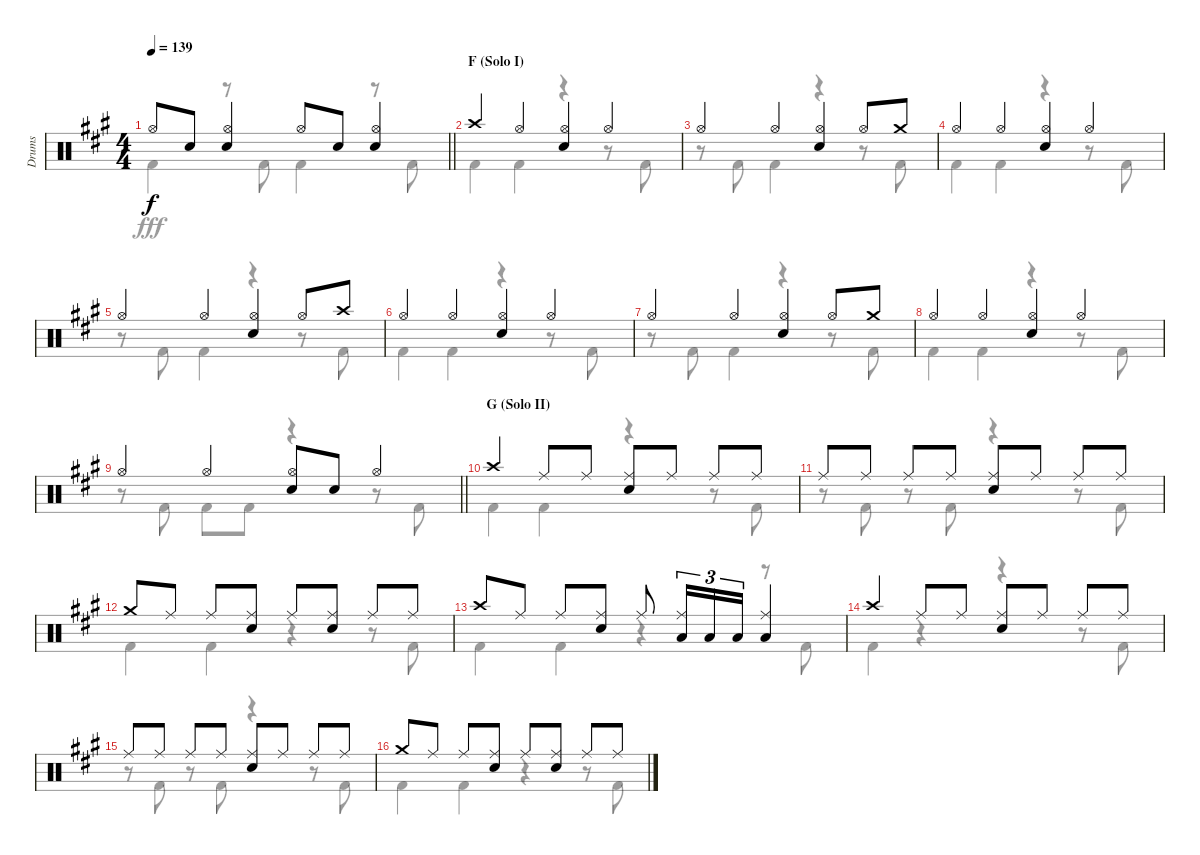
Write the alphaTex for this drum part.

\track ("Drums" "Drums") {instrument percussion}
\staff {score}
\articulation defaults
\voice
\ts (4 4)
\tempo 139
\clef neutral
\barLineRight lightlight
\ks a "Hi-Hat (open)".8{dy f} "Snare (hit) 2".8
("Hi-Hat (open)" "Snare (hit) 2").4 "Hi-Hat (open)".8 "Snare (hit) 2".8 ("Hi-Hat (open)" "Snare (hit) 2").4 |
\section ("" "F (Solo I)")
"Crash high (hit)".4 "Hi-Hat (open)".4 ("Hi-Hat (open)" "Snare (hit) 2").4 "Hi-Hat (open)".4 |
"Hi-Hat (open)".4 "Hi-Hat (open)".4 ("Hi-Hat (open)" "Snare (hit) 2").4 "Hi-Hat (open)".8 "Crash medium (hit)".8 |
"Hi-Hat (open)".4 "Hi-Hat (open)".4 ("Hi-Hat (open)" "Snare (hit) 2").4 "Hi-Hat (open)".4 |
"Hi-Hat (open)".4 "Hi-Hat (open)".4 ("Hi-Hat (open)" "Snare (hit) 2").4 "Hi-Hat (open)".8 "Crash high (hit)".8 |
"Hi-Hat (open)".4 "Hi-Hat (open)".4 ("Hi-Hat (open)" "Snare (hit) 2").4 "Hi-Hat (open)".4 |
"Hi-Hat (open)".4 "Hi-Hat (open)".4 ("Hi-Hat (open)" "Snare (hit) 2").4 "Hi-Hat (open)".8 "Crash medium (hit)".8 |
"Hi-Hat (open)".4 "Hi-Hat (open)".4 ("Hi-Hat (open)" "Snare (hit) 2").4 "Hi-Hat (open)".4 |
\barLineRight lightlight "Hi-Hat (open)".4 "Hi-Hat (open)".4
("Hi-Hat (open)" "Snare (hit) 2").8 "Snare (hit) 2".8 "Hi-Hat (open)".4 |
\section ("" "G (Solo II)")
"Crash high (hit)".4 "Ride (middle)".8 "Ride (middle)".8 ("Ride (middle)" "Snare (hit) 2").8 "Ride (middle)".8 "Ride (middle)".8 "Ride (middle)".8 |
"Ride (middle)".8 "Ride (middle)".8 "Ride (middle)".8 "Ride (middle)".8 ("Ride (middle)" "Snare (hit) 2").8 "Ride (middle)".8 "Ride (middle)".8 "Ride (middle)".8 |
"Crash medium (hit)".8 "Ride (middle)".8 "Ride (middle)".8 ("Ride (middle)" "Snare (hit) 2").8 "Ride (middle)".8 ("Ride (middle)" "Snare (hit) 2").8 "Ride (middle)".8 "Ride (middle)".8 |
"Crash high (hit)".8 "Ride (middle)".8 "Ride (middle)".8 ("Ride (middle)" "Snare (hit) 2").8 "Ride (middle)".8 ("Ride (middle)" "Low Tom (hit)").16{tu (3 2)} "Low Tom (hit)".16{tu (3 2)} "Low Tom (hit)".16{tu (3 2)} ("Ride (middle)" "Low Tom (hit)").4 |
"Crash high (hit)".4 "Ride (middle)".8 "Ride (middle)".8 ("Ride (middle)" "Snare (hit) 2").8 "Ride (middle)".8 "Ride (middle)".8 "Ride (middle)".8 |
"Ride (middle)".8 "Ride (middle)".8 "Ride (middle)".8 "Ride (middle)".8 ("Ride (middle)" "Snare (hit) 2").8 "Ride (middle)".8 "Ride (middle)".8 "Ride (middle)".8 |
"Crash medium (hit)".8 "Ride (middle)".8 "Ride (middle)".8 ("Ride (middle)" "Snare (hit) 2").8 "Ride (middle)".8 ("Ride (middle)" "Snare (hit) 2").8 "Ride (middle)".8 "Ride (middle)".8
\voice
\clef neutral
\ottava regular
\simile none
\barLineRight lightlight
\ks a "Kick (hit) 2".4{dy fff}
r.8 "Kick (hit) 2".8 "Kick (hit) 2".4 r.8 "Kick (hit) 2".8 |
"Kick (hit) 2".4 "Kick (hit) 2".4 r.4 r.8 "Kick (hit) 2".8 |
r.8 "Kick (hit) 2".8 "Kick (hit) 2".4 r.4 r.8 "Kick (hit) 2".8 |
"Kick (hit) 2".4 "Kick (hit) 2".4 r.4 r.8 "Kick (hit) 2".8 |
r.8 "Kick (hit) 2".8 "Kick (hit) 2".4 r.4 r.8 "Kick (hit) 2".8 |
"Kick (hit) 2".4 "Kick (hit) 2".4 r.4 r.8 "Kick (hit) 2".8 |
r.8 "Kick (hit) 2".8 "Kick (hit) 2".4 r.4 r.8 "Kick (hit) 2".8 |
"Kick (hit) 2".4 "Kick (hit) 2".4 r.4 r.8 "Kick (hit) 2".8 |
\barLineRight lightlight
r.8 "Kick (hit) 2".8 "Kick (hit) 2".8 "Kick (hit) 2".8 r.4 r.8 "Kick (hit) 2".8 |
"Kick (hit) 2".4 "Kick (hit) 2".4 r.4 r.8 "Kick (hit) 2".8 |
r.8 "Kick (hit) 2".8 r.8 "Kick (hit) 2".8 r.4 r.8 "Kick (hit) 2".8 |
"Kick (hit) 2".4 "Kick (hit) 2".4 r.4 r.8 "Kick (hit) 2".8 |
"Kick (hit) 2".4 "Kick (hit) 2".4 r.4 r.8 "Kick (hit) 2".8 |
"Kick (hit) 2".4 r.4 r.4 r.8 "Kick (hit) 2".8 |
r.8 "Kick (hit) 2".8 r.8 "Kick (hit) 2".8 r.4 r.8 "Kick (hit) 2".8 |
"Kick (hit) 2".4 "Kick (hit) 2".4 r.4 r.8 "Kick (hit) 2".8
